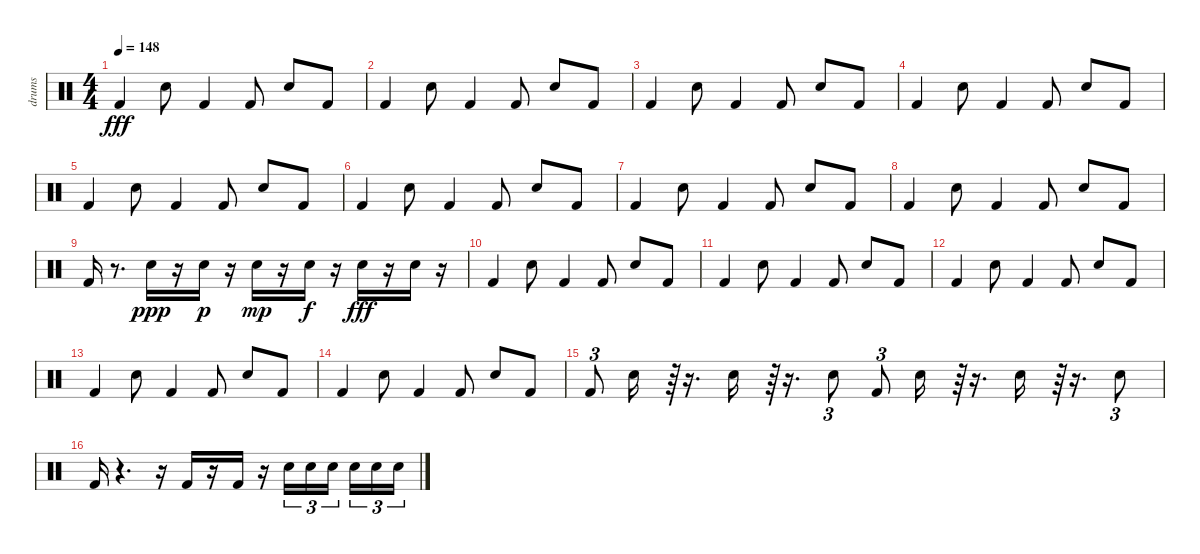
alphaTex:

\track ("drums" "drums") {instrument percussion}
\staff {score}
\articulation defaults
\ts (4 4)
\tempo 148
\clef neutral
\ks c "Kick (hit) 2".4{dy fff} "Electric Snare (hit)".8 "Kick (hit) 2".4 "Kick (hit) 2".8 "Electric Snare (hit)".8 "Kick (hit) 2".8
|
"Kick (hit) 2".4 "Electric Snare (hit)".8 "Kick (hit) 2".4 "Kick (hit) 2".8 "Electric Snare (hit)".8 "Kick (hit) 2".8 |
"Kick (hit) 2".4 "Electric Snare (hit)".8 "Kick (hit) 2".4 "Kick (hit) 2".8 "Electric Snare (hit)".8 "Kick (hit) 2".8 |
"Kick (hit) 2".4 "Electric Snare (hit)".8 "Kick (hit) 2".4 "Kick (hit) 2".8 "Electric Snare (hit)".8 "Kick (hit) 2".8 |
"Kick (hit) 2".4 "Electric Snare (hit)".8 "Kick (hit) 2".4 "Kick (hit) 2".8 "Electric Snare (hit)".8 "Kick (hit) 2".8 |
"Kick (hit) 2".4 "Electric Snare (hit)".8 "Kick (hit) 2".4 "Kick (hit) 2".8 "Electric Snare (hit)".8 "Kick (hit) 2".8 |
"Kick (hit) 2".4 "Electric Snare (hit)".8 "Kick (hit) 2".4 "Kick (hit) 2".8 "Electric Snare (hit)".8 "Kick (hit) 2".8 |
"Kick (hit) 2".4 "Electric Snare (hit)".8 "Kick (hit) 2".4 "Kick (hit) 2".8 "Electric Snare (hit)".8 "Kick (hit) 2".8 |
"Kick (hit) 2".16 r.8{d} "Electric Snare (hit)".16{dy ppp} r.16 "Electric Snare (hit)".16{dy p} r.16 "Electric Snare (hit)".16{dy mp} r.16 "Electric Snare (hit)".16{dy f} r.16 "Electric Snare (hit)".16{dy fff} r.16 "Electric Snare (hit)".16 r.16 |
"Kick (hit) 2".4 "Electric Snare (hit)".8 "Kick (hit) 2".4 "Kick (hit) 2".8 "Electric Snare (hit)".8 "Kick (hit) 2".8 |
"Kick (hit) 2".4 "Electric Snare (hit)".8 "Kick (hit) 2".4 "Kick (hit) 2".8 "Electric Snare (hit)".8 "Kick (hit) 2".8 |
"Kick (hit) 2".4 "Electric Snare (hit)".8 "Kick (hit) 2".4 "Kick (hit) 2".8 "Electric Snare (hit)".8 "Kick (hit) 2".8 |
"Kick (hit) 2".4 "Electric Snare (hit)".8 "Kick (hit) 2".4 "Kick (hit) 2".8 "Electric Snare (hit)".8 "Kick (hit) 2".8 |
"Kick (hit) 2".4 "Electric Snare (hit)".8 "Kick (hit) 2".4 "Kick (hit) 2".8 "Electric Snare (hit)".8 "Kick (hit) 2".8 |
"Kick (hit) 2".8{tu (3 2)} "Electric Snare (hit)".16 r.64{tu (3 2)} r.16{d} "Electric Snare (hit)".16 r.64{tu (3 2)} r.16{d} "Electric Snare (hit)".8{tu (3 2)} "Kick (hit) 2".8{tu (3 2)} "Electric Snare (hit)".16 r.64{tu (3 2)} r.16{d} "Electric Snare (hit)".16 r.64{tu (3 2)} r.16{d} "Electric Snare (hit)".8{tu (3 2)} |
"Kick (hit) 2".16 r.4{d} r.16 "Kick (hit) 2".16 r.16 "Kick (hit) 2".16 r.16 "Electric Snare (hit)".16{tu (3 2)} "Electric Snare (hit)".16{tu (3 2)} "Electric Snare (hit)".16{tu (3 2) beam splitsecondary} "Electric Snare (hit)".16{tu (3 2)} "Electric Snare (hit)".16{tu (3 2)} "Electric Snare (hit)".16{tu (3 2)}
